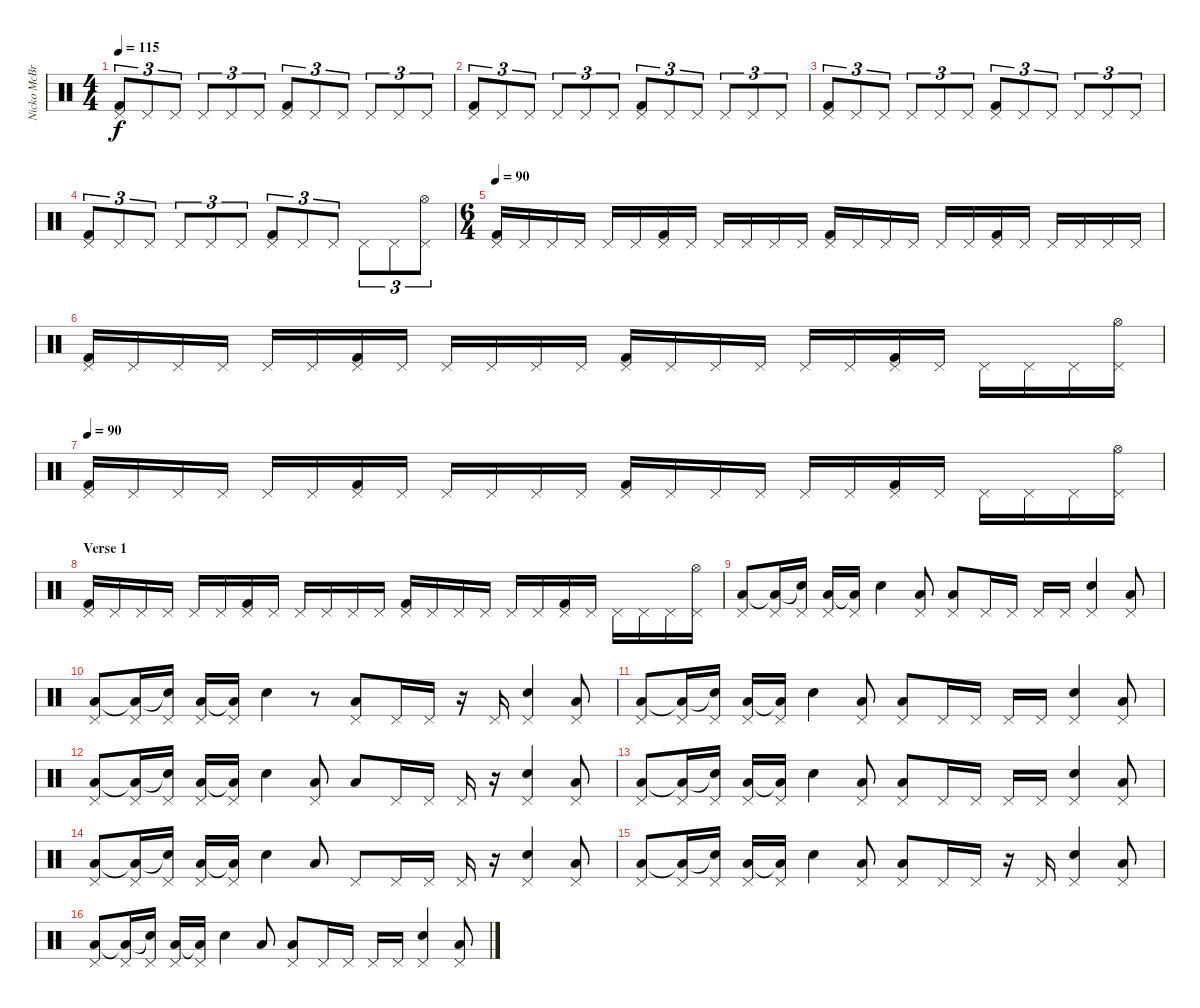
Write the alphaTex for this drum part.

\track ("Nicko McBrain" "Nicko McBr") {instrument percussion}
\staff {score}
\articulation defaults
\ts (4 4)
\tempo 115
\clef neutral
\ks c
("Pedal Hi-Hat (hit)" "Kick (hit) 2").8{tu (3 2) dy f} "Pedal Hi-Hat (hit)".8{tu (3 2)} "Pedal Hi-Hat (hit)".8{tu (3 2)} "Pedal Hi-Hat (hit)".8{tu (3 2)} "Pedal Hi-Hat (hit)".8{tu (3 2)} "Pedal Hi-Hat (hit)".8{tu (3 2)} ("Pedal Hi-Hat (hit)" "Kick (hit) 2").8{tu (3 2)} "Pedal Hi-Hat (hit)".8{tu (3 2)} "Pedal Hi-Hat (hit)".8{tu (3 2)} "Pedal Hi-Hat (hit)".8{tu (3 2)} "Pedal Hi-Hat (hit)".8{tu (3 2)} "Pedal Hi-Hat (hit)".8{tu (3 2)} |
("Pedal Hi-Hat (hit)" "Kick (hit) 2").8{tu (3 2)} "Pedal Hi-Hat (hit)".8{tu (3 2)} "Pedal Hi-Hat (hit)".8{tu (3 2)} "Pedal Hi-Hat (hit)".8{tu (3 2)} "Pedal Hi-Hat (hit)".8{tu (3 2)} "Pedal Hi-Hat (hit)".8{tu (3 2)} ("Pedal Hi-Hat (hit)" "Kick (hit) 2").8{tu (3 2)} "Pedal Hi-Hat (hit)".8{tu (3 2)} "Pedal Hi-Hat (hit)".8{tu (3 2)} "Pedal Hi-Hat (hit)".8{tu (3 2)} "Pedal Hi-Hat (hit)".8{tu (3 2)} "Pedal Hi-Hat (hit)".8{tu (3 2)} |
("Pedal Hi-Hat (hit)" "Kick (hit) 2").8{tu (3 2)} "Pedal Hi-Hat (hit)".8{tu (3 2)} "Pedal Hi-Hat (hit)".8{tu (3 2)} "Pedal Hi-Hat (hit)".8{tu (3 2)} "Pedal Hi-Hat (hit)".8{tu (3 2)} "Pedal Hi-Hat (hit)".8{tu (3 2)} ("Pedal Hi-Hat (hit)" "Kick (hit) 2").8{tu (3 2)} "Pedal Hi-Hat (hit)".8{tu (3 2)} "Pedal Hi-Hat (hit)".8{tu (3 2)} "Pedal Hi-Hat (hit)".8{tu (3 2)} "Pedal Hi-Hat (hit)".8{tu (3 2)} "Pedal Hi-Hat (hit)".8{tu (3 2)} |
("Pedal Hi-Hat (hit)" "Kick (hit) 2").8{tu (3 2)} "Pedal Hi-Hat (hit)".8{tu (3 2)} "Pedal Hi-Hat (hit)".8{tu (3 2)} "Pedal Hi-Hat (hit)".8{tu (3 2)} "Pedal Hi-Hat (hit)".8{tu (3 2)} "Pedal Hi-Hat (hit)".8{tu (3 2)} ("Pedal Hi-Hat (hit)" "Kick (hit) 2").8{tu (3 2)} "Pedal Hi-Hat (hit)".8{tu (3 2)} "Pedal Hi-Hat (hit)".8{tu (3 2)} "Pedal Hi-Hat (hit)".8{tu (3 2)} "Pedal Hi-Hat (hit)".8{tu (3 2)} ("Pedal Hi-Hat (hit)" "Hi-Hat (open)").8{tu (3 2)} |
\ts (6 4)
\tempo 95
\tempo 90
("Pedal Hi-Hat (hit)" "Kick (hit) 2").16 "Pedal Hi-Hat (hit)".16 "Pedal Hi-Hat (hit)".16 "Pedal Hi-Hat (hit)".16 "Pedal Hi-Hat (hit)".16 "Pedal Hi-Hat (hit)".16 ("Pedal Hi-Hat (hit)" "Kick (hit) 2").16 "Pedal Hi-Hat (hit)".16 "Pedal Hi-Hat (hit)".16 "Pedal Hi-Hat (hit)".16 "Pedal Hi-Hat (hit)".16 "Pedal Hi-Hat (hit)".16 ("Pedal Hi-Hat (hit)" "Kick (hit) 2").16 "Pedal Hi-Hat (hit)".16 "Pedal Hi-Hat (hit)".16 "Pedal Hi-Hat (hit)".16 "Pedal Hi-Hat (hit)".16 "Pedal Hi-Hat (hit)".16 ("Pedal Hi-Hat (hit)" "Kick (hit) 2").16 "Pedal Hi-Hat (hit)".16 "Pedal Hi-Hat (hit)".16 "Pedal Hi-Hat (hit)".16 "Pedal Hi-Hat (hit)".16 "Pedal Hi-Hat (hit)".16 |
("Pedal Hi-Hat (hit)" "Kick (hit) 2").16 "Pedal Hi-Hat (hit)".16 "Pedal Hi-Hat (hit)".16 "Pedal Hi-Hat (hit)".16 "Pedal Hi-Hat (hit)".16 "Pedal Hi-Hat (hit)".16 ("Pedal Hi-Hat (hit)" "Kick (hit) 2").16 "Pedal Hi-Hat (hit)".16 "Pedal Hi-Hat (hit)".16 "Pedal Hi-Hat (hit)".16 "Pedal Hi-Hat (hit)".16 "Pedal Hi-Hat (hit)".16 ("Pedal Hi-Hat (hit)" "Kick (hit) 2").16 "Pedal Hi-Hat (hit)".16 "Pedal Hi-Hat (hit)".16 "Pedal Hi-Hat (hit)".16 "Pedal Hi-Hat (hit)".16 "Pedal Hi-Hat (hit)".16 ("Pedal Hi-Hat (hit)" "Kick (hit) 2").16 "Pedal Hi-Hat (hit)".16 "Pedal Hi-Hat (hit)".16 "Pedal Hi-Hat (hit)".16 "Pedal Hi-Hat (hit)".16 ("Pedal Hi-Hat (hit)" "Hi-Hat (open)").16 |
\tempo 90
("Pedal Hi-Hat (hit)" "Kick (hit) 2").16 "Pedal Hi-Hat (hit)".16 "Pedal Hi-Hat (hit)".16 "Pedal Hi-Hat (hit)".16 "Pedal Hi-Hat (hit)".16 "Pedal Hi-Hat (hit)".16 ("Pedal Hi-Hat (hit)" "Kick (hit) 2").16 "Pedal Hi-Hat (hit)".16 "Pedal Hi-Hat (hit)".16 "Pedal Hi-Hat (hit)".16 "Pedal Hi-Hat (hit)".16 "Pedal Hi-Hat (hit)".16 ("Pedal Hi-Hat (hit)" "Kick (hit) 2").16 "Pedal Hi-Hat (hit)".16 "Pedal Hi-Hat (hit)".16 "Pedal Hi-Hat (hit)".16 "Pedal Hi-Hat (hit)".16 "Pedal Hi-Hat (hit)".16 ("Pedal Hi-Hat (hit)" "Kick (hit) 2").16 "Pedal Hi-Hat (hit)".16 "Pedal Hi-Hat (hit)".16 "Pedal Hi-Hat (hit)".16 "Pedal Hi-Hat (hit)".16 ("Pedal Hi-Hat (hit)" "Hi-Hat (open)").16 |
\section ("" "Verse 1")
("Pedal Hi-Hat (hit)" "Kick (hit) 2").16 "Pedal Hi-Hat (hit)".16 "Pedal Hi-Hat (hit)".16 "Pedal Hi-Hat (hit)".16 "Pedal Hi-Hat (hit)".16 "Pedal Hi-Hat (hit)".16 ("Pedal Hi-Hat (hit)" "Kick (hit) 2").16 "Pedal Hi-Hat (hit)".16 "Pedal Hi-Hat (hit)".16 "Pedal Hi-Hat (hit)".16 "Pedal Hi-Hat (hit)".16 "Pedal Hi-Hat (hit)".16 ("Pedal Hi-Hat (hit)" "Kick (hit) 2").16 "Pedal Hi-Hat (hit)".16 "Pedal Hi-Hat (hit)".16 "Pedal Hi-Hat (hit)".16 "Pedal Hi-Hat (hit)".16 "Pedal Hi-Hat (hit)".16 ("Pedal Hi-Hat (hit)" "Kick (hit) 2").16 "Pedal Hi-Hat (hit)".16 "Pedal Hi-Hat (hit)".16 "Pedal Hi-Hat (hit)".16 "Pedal Hi-Hat (hit)".16 ("Pedal Hi-Hat (hit)" "Hi-Hat (open)").16 |
("Pedal Hi-Hat (hit)" "Low Floor Tom (hit)").8 ("Pedal Hi-Hat (hit)" "Low Floor Tom (hit)"{t}).16 ("Pedal Hi-Hat (hit)" "Electric Snare (hit)"{t}).16 ("Pedal Hi-Hat (hit)" "Low Floor Tom (hit)").16 ("Pedal Hi-Hat (hit)" "Low Floor Tom (hit)"{t}).16 "Electric Snare (hit)".4 ("Pedal Hi-Hat (hit)" "Low Floor Tom (hit)").8 ("Pedal Hi-Hat (hit)" "Low Floor Tom (hit)").8 "Pedal Hi-Hat (hit)".16 "Pedal Hi-Hat (hit)".16 "Pedal Hi-Hat (hit)".16 "Pedal Hi-Hat (hit)".16 ("Pedal Hi-Hat (hit)" "Electric Snare (hit)").4 ("Pedal Hi-Hat (hit)" "Low Floor Tom (hit)").8 |
("Pedal Hi-Hat (hit)" "Low Floor Tom (hit)").8 ("Pedal Hi-Hat (hit)" "Low Floor Tom (hit)"{t}).16 ("Pedal Hi-Hat (hit)" "Electric Snare (hit)"{t}).16 ("Pedal Hi-Hat (hit)" "Low Floor Tom (hit)").16 ("Pedal Hi-Hat (hit)" "Low Floor Tom (hit)"{t}).16 "Electric Snare (hit)".4 r.8 ("Pedal Hi-Hat (hit)" "Low Floor Tom (hit)").8 "Pedal Hi-Hat (hit)".16 "Pedal Hi-Hat (hit)".16 r.16 "Pedal Hi-Hat (hit)".16 ("Pedal Hi-Hat (hit)" "Electric Snare (hit)").4 ("Pedal Hi-Hat (hit)" "Low Floor Tom (hit)").8 |
("Pedal Hi-Hat (hit)" "Low Floor Tom (hit)").8 ("Pedal Hi-Hat (hit)" "Low Floor Tom (hit)"{t}).16 ("Pedal Hi-Hat (hit)" "Electric Snare (hit)"{t}).16 ("Pedal Hi-Hat (hit)" "Low Floor Tom (hit)").16 ("Pedal Hi-Hat (hit)" "Low Floor Tom (hit)"{t}).16 "Electric Snare (hit)".4 ("Pedal Hi-Hat (hit)" "Low Floor Tom (hit)").8 ("Pedal Hi-Hat (hit)" "Low Floor Tom (hit)").8 "Pedal Hi-Hat (hit)".16 "Pedal Hi-Hat (hit)".16 "Pedal Hi-Hat (hit)".16 "Pedal Hi-Hat (hit)".16 ("Pedal Hi-Hat (hit)" "Electric Snare (hit)").4 ("Pedal Hi-Hat (hit)" "Low Floor Tom (hit)").8 |
("Pedal Hi-Hat (hit)" "Low Floor Tom (hit)").8 ("Pedal Hi-Hat (hit)" "Low Floor Tom (hit)"{t}).16 ("Pedal Hi-Hat (hit)" "Electric Snare (hit)"{t}).16 ("Pedal Hi-Hat (hit)" "Low Floor Tom (hit)").16 ("Pedal Hi-Hat (hit)" "Low Floor Tom (hit)"{t}).16 "Electric Snare (hit)".4 ("Pedal Hi-Hat (hit)" "Low Floor Tom (hit)").8 "Low Floor Tom (hit)".8 "Pedal Hi-Hat (hit)".16 "Pedal Hi-Hat (hit)".16 "Pedal Hi-Hat (hit)".16 r.16 ("Pedal Hi-Hat (hit)" "Electric Snare (hit)").4 ("Pedal Hi-Hat (hit)" "Low Floor Tom (hit)").8 |
("Pedal Hi-Hat (hit)" "Low Floor Tom (hit)").8 ("Pedal Hi-Hat (hit)" "Low Floor Tom (hit)"{t}).16 ("Pedal Hi-Hat (hit)" "Electric Snare (hit)"{t}).16 ("Pedal Hi-Hat (hit)" "Low Floor Tom (hit)").16 ("Pedal Hi-Hat (hit)" "Low Floor Tom (hit)"{t}).16 "Electric Snare (hit)".4 ("Pedal Hi-Hat (hit)" "Low Floor Tom (hit)").8 ("Pedal Hi-Hat (hit)" "Low Floor Tom (hit)").8 "Pedal Hi-Hat (hit)".16 "Pedal Hi-Hat (hit)".16 "Pedal Hi-Hat (hit)".16 "Pedal Hi-Hat (hit)".16 ("Pedal Hi-Hat (hit)" "Electric Snare (hit)").4 ("Pedal Hi-Hat (hit)" "Low Floor Tom (hit)").8 |
("Pedal Hi-Hat (hit)" "Low Floor Tom (hit)").8 ("Pedal Hi-Hat (hit)" "Low Floor Tom (hit)"{t}).16 ("Pedal Hi-Hat (hit)" "Electric Snare (hit)"{t}).16 ("Pedal Hi-Hat (hit)" "Low Floor Tom (hit)").16 ("Pedal Hi-Hat (hit)" "Low Floor Tom (hit)"{t}).16 "Electric Snare (hit)".4 "Low Floor Tom (hit)".8 "Pedal Hi-Hat (hit)".8 "Pedal Hi-Hat (hit)".16 "Pedal Hi-Hat (hit)".16 "Pedal Hi-Hat (hit)".16 r.16 ("Pedal Hi-Hat (hit)" "Electric Snare (hit)").4 ("Pedal Hi-Hat (hit)" "Low Floor Tom (hit)").8 |
("Pedal Hi-Hat (hit)" "Low Floor Tom (hit)").8 ("Pedal Hi-Hat (hit)" "Low Floor Tom (hit)"{t}).16 ("Pedal Hi-Hat (hit)" "Electric Snare (hit)"{t}).16 ("Pedal Hi-Hat (hit)" "Low Floor Tom (hit)").16 ("Pedal Hi-Hat (hit)" "Low Floor Tom (hit)"{t}).16 "Electric Snare (hit)".4 ("Pedal Hi-Hat (hit)" "Low Floor Tom (hit)").8 ("Pedal Hi-Hat (hit)" "Low Floor Tom (hit)").8 "Pedal Hi-Hat (hit)".16 "Pedal Hi-Hat (hit)".16 r.16 "Pedal Hi-Hat (hit)".16 ("Pedal Hi-Hat (hit)" "Electric Snare (hit)").4 ("Pedal Hi-Hat (hit)" "Low Floor Tom (hit)").8 |
("Pedal Hi-Hat (hit)" "Low Floor Tom (hit)").8 ("Pedal Hi-Hat (hit)" "Low Floor Tom (hit)"{t}).16 ("Pedal Hi-Hat (hit)" "Electric Snare (hit)"{t}).16 ("Pedal Hi-Hat (hit)" "Low Floor Tom (hit)").16 ("Pedal Hi-Hat (hit)" "Low Floor Tom (hit)"{t}).16 "Electric Snare (hit)".4 "Low Floor Tom (hit)".8 ("Pedal Hi-Hat (hit)" "Low Floor Tom (hit)").8 "Pedal Hi-Hat (hit)".16 "Pedal Hi-Hat (hit)".16 "Pedal Hi-Hat (hit)".16 "Pedal Hi-Hat (hit)".16 ("Pedal Hi-Hat (hit)" "Electric Snare (hit)").4 ("Pedal Hi-Hat (hit)" "Low Floor Tom (hit)").8
